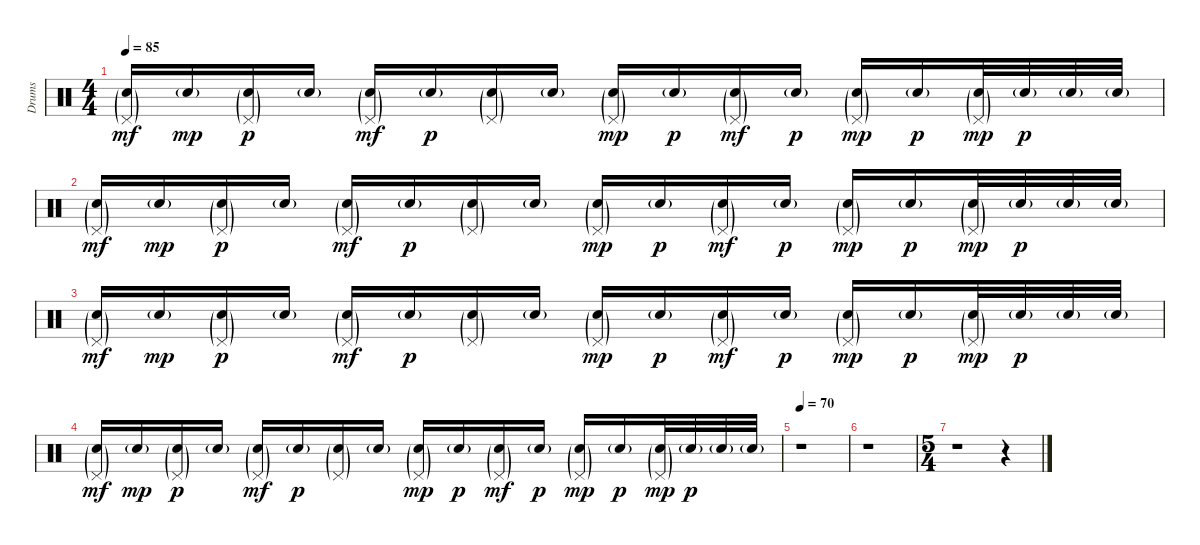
\track ("Drums" "Drums") {instrument percussion}
\staff {score}
\articulation defaults
\ts (4 4)
\tempo 85
\clef neutral
\ks c
("Pedal Hi-Hat (hit)"{g} "Electric Snare (hit)"{g}).16{dy mf volume 9} "Electric Snare (hit)"{g}.16{dy mp} ("Pedal Hi-Hat (hit)"{g} "Electric Snare (hit)"{g}).16{dy p} "Electric Snare (hit)"{g}.16 ("Pedal Hi-Hat (hit)"{g} "Electric Snare (hit)"{g}).16{dy mf} "Electric Snare (hit)"{g}.16{dy p} ("Pedal Hi-Hat (hit)"{g} "Electric Snare (hit)"{g}).16 "Electric Snare (hit)"{g}.16 ("Pedal Hi-Hat (hit)"{g} "Electric Snare (hit)"{g}).16{dy mp} "Electric Snare (hit)"{g}.16{dy p} ("Pedal Hi-Hat (hit)"{g} "Electric Snare (hit)"{g}).16{dy mf} "Electric Snare (hit)"{g}.16{dy p} ("Pedal Hi-Hat (hit)"{g} "Electric Snare (hit)"{g}).16{dy mp} "Electric Snare (hit)"{g}.16{dy p} ("Pedal Hi-Hat (hit)"{g} "Electric Snare (hit)"{g}).32{dy mp} "Electric Snare (hit)"{g}.32{dy p} "Electric Snare (hit)"{g}.32 "Electric Snare (hit)"{g}.32 |
("Pedal Hi-Hat (hit)"{g} "Electric Snare (hit)"{g}).16{dy mf volume 0} "Electric Snare (hit)"{g}.16{dy mp} ("Pedal Hi-Hat (hit)"{g} "Electric Snare (hit)"{g}).16{dy p} "Electric Snare (hit)"{g}.16 ("Pedal Hi-Hat (hit)"{g} "Electric Snare (hit)"{g}).16{dy mf} "Electric Snare (hit)"{g}.16{dy p} ("Pedal Hi-Hat (hit)"{g} "Electric Snare (hit)"{g}).16 "Electric Snare (hit)"{g}.16 ("Pedal Hi-Hat (hit)"{g} "Electric Snare (hit)"{g}).16{dy mp} "Electric Snare (hit)"{g}.16{dy p} ("Pedal Hi-Hat (hit)"{g} "Electric Snare (hit)"{g}).16{dy mf} "Electric Snare (hit)"{g}.16{dy p} ("Pedal Hi-Hat (hit)"{g} "Electric Snare (hit)"{g}).16{dy mp} "Electric Snare (hit)"{g}.16{dy p} ("Pedal Hi-Hat (hit)"{g} "Electric Snare (hit)"{g}).32{dy mp} "Electric Snare (hit)"{g}.32{dy p} "Electric Snare (hit)"{g}.32 "Electric Snare (hit)"{g}.32 |
("Pedal Hi-Hat (hit)"{g} "Electric Snare (hit)"{g}).16{dy mf} "Electric Snare (hit)"{g}.16{dy mp} ("Pedal Hi-Hat (hit)"{g} "Electric Snare (hit)"{g}).16{dy p} "Electric Snare (hit)"{g}.16 ("Pedal Hi-Hat (hit)"{g} "Electric Snare (hit)"{g}).16{dy mf} "Electric Snare (hit)"{g}.16{dy p} ("Pedal Hi-Hat (hit)"{g} "Electric Snare (hit)"{g}).16 "Electric Snare (hit)"{g}.16 ("Pedal Hi-Hat (hit)"{g} "Electric Snare (hit)"{g}).16{dy mp} "Electric Snare (hit)"{g}.16{dy p} ("Pedal Hi-Hat (hit)"{g} "Electric Snare (hit)"{g}).16{dy mf} "Electric Snare (hit)"{g}.16{dy p} ("Pedal Hi-Hat (hit)"{g} "Electric Snare (hit)"{g}).16{dy mp} "Electric Snare (hit)"{g}.16{dy p} ("Pedal Hi-Hat (hit)"{g} "Electric Snare (hit)"{g}).32{dy mp} "Electric Snare (hit)"{g}.32{dy p} "Electric Snare (hit)"{g}.32 "Electric Snare (hit)"{g}.32 |
("Pedal Hi-Hat (hit)"{g} "Electric Snare (hit)"{g}).16{dy mf} "Electric Snare (hit)"{g}.16{dy mp} ("Pedal Hi-Hat (hit)"{g} "Electric Snare (hit)"{g}).16{dy p} "Electric Snare (hit)"{g}.16 ("Pedal Hi-Hat (hit)"{g} "Electric Snare (hit)"{g}).16{dy mf} "Electric Snare (hit)"{g}.16{dy p} ("Pedal Hi-Hat (hit)"{g} "Electric Snare (hit)"{g}).16 "Electric Snare (hit)"{g}.16 ("Pedal Hi-Hat (hit)"{g} "Electric Snare (hit)"{g}).16{dy mp} "Electric Snare (hit)"{g}.16{dy p} ("Pedal Hi-Hat (hit)"{g} "Electric Snare (hit)"{g}).16{dy mf} "Electric Snare (hit)"{g}.16{dy p} ("Pedal Hi-Hat (hit)"{g} "Electric Snare (hit)"{g}).16{dy mp} "Electric Snare (hit)"{g}.16{dy p} ("Pedal Hi-Hat (hit)"{g} "Electric Snare (hit)"{g}).32{dy mp} "Electric Snare (hit)"{g}.32{dy p} "Electric Snare (hit)"{g}.32 "Electric Snare (hit)"{g}.32 |
\tempo 70
r.1 |
r.1 |
\ts (5 4)
r.1 r.4
